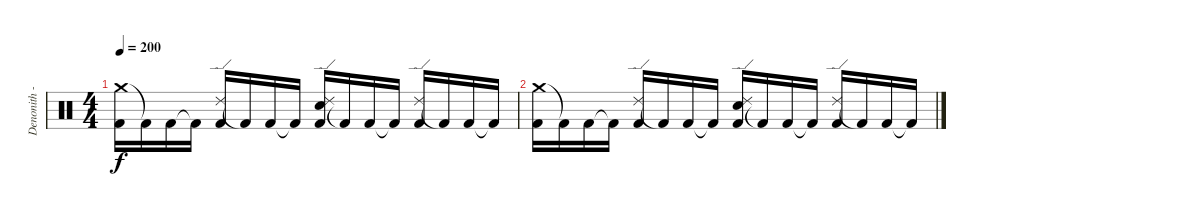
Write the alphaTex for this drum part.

\track ("Denonith - Spyros" "Denonith -") {instrument percussion}
\staff {score}
\articulation defaults
\ts (4 4)
\tempo 200
\clef neutral
\ks c
("Crash medium (hit)" "Kick (hit) 2").16{dy f} "Kick (hit) 2"{t}.16 "Kick (hit) 2".16 "Kick (hit) 2"{t}.16 ("Ride (edge) 2" "Kick (hit) 2").16 "Kick (hit) 2"{t}.16 "Kick (hit) 2".16 "Kick (hit) 2"{t}.16 ("Ride (edge) 2" "Electric Snare (hit)" "Kick (hit) 2").16 "Kick (hit) 2"{t}.16 "Kick (hit) 2".16 "Kick (hit) 2"{t}.16 ("Ride (edge) 2" "Kick (hit) 2").16 "Kick (hit) 2"{t}.16 "Kick (hit) 2".16 "Kick (hit) 2"{t}.16 |
("Crash medium (hit)" "Kick (hit) 2").16 "Kick (hit) 2"{t}.16 "Kick (hit) 2".16 "Kick (hit) 2"{t}.16 ("Ride (edge) 2" "Kick (hit) 2").16 "Kick (hit) 2"{t}.16 "Kick (hit) 2".16 "Kick (hit) 2"{t}.16 ("Ride (edge) 2" "Electric Snare (hit)" "Kick (hit) 2").16 "Kick (hit) 2"{t}.16 "Kick (hit) 2".16 "Kick (hit) 2"{t}.16 ("Ride (edge) 2" "Kick (hit) 2").16 "Kick (hit) 2"{t}.16 "Kick (hit) 2".16 "Kick (hit) 2"{t}.16
